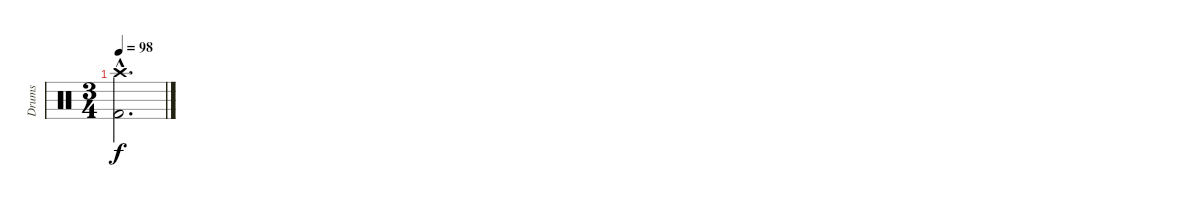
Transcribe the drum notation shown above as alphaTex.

\track ("Drums" "Drums") {instrument percussion}
\staff {score}
\articulation defaults
\ts (3 4)
\tempo 98
\clef neutral
\ks c
("Crash high (hit)"{hac} "Kick (hit) 2"{hac}).2{d dy f}
